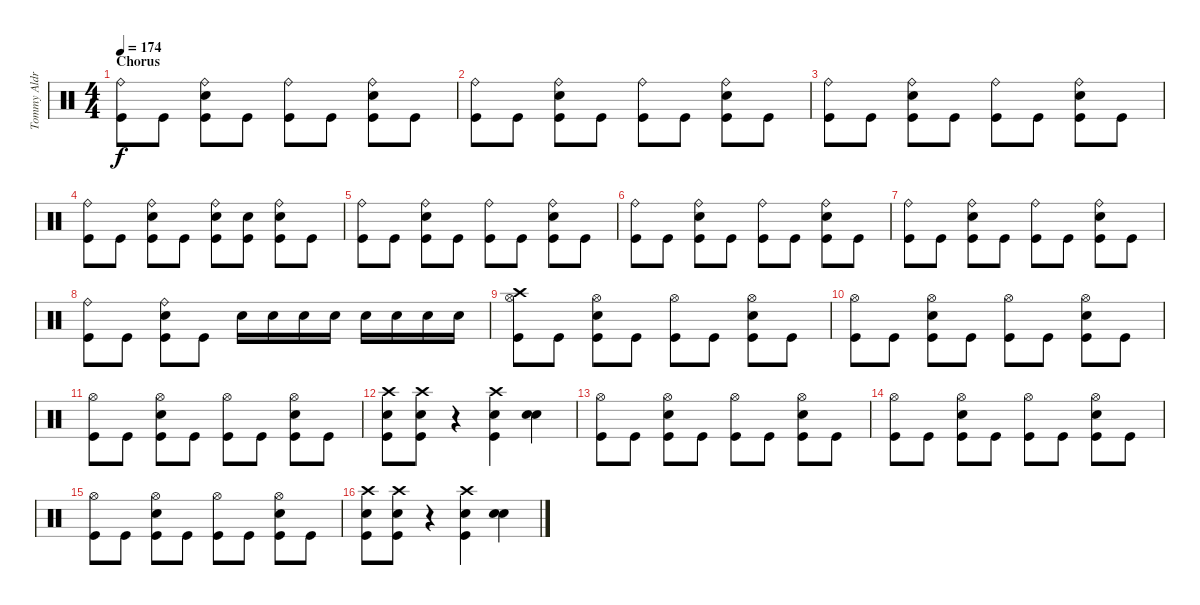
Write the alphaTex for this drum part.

\track ("Tommy Aldrige" "Tommy Aldr") {instrument percussion}
\staff {score}
\articulation defaults
\ts (4 4)
\section ("" "Chorus")
\tempo 174
\clef neutral
\ks c
("Ride (bell)" "Kick (hit)").8{dy f} "Kick (hit)".8 ("Ride (bell)" "Kick (hit)" "Snare (hit) 2").8 "Kick (hit)".8 ("Ride (bell)" "Kick (hit)").8 "Kick (hit)".8 ("Ride (bell)" "Kick (hit)" "Snare (hit) 2").8 "Kick (hit)".8 |
("Ride (bell)" "Kick (hit)").8 "Kick (hit)".8 ("Ride (bell)" "Kick (hit)" "Snare (hit) 2").8 "Kick (hit)".8 ("Ride (bell)" "Kick (hit)").8 "Kick (hit)".8 ("Ride (bell)" "Kick (hit)" "Snare (hit) 2").8 "Kick (hit)".8 |
("Ride (bell)" "Kick (hit)").8 "Kick (hit)".8 ("Ride (bell)" "Kick (hit)" "Snare (hit) 2").8 "Kick (hit)".8 ("Ride (bell)" "Kick (hit)").8 "Kick (hit)".8 ("Ride (bell)" "Kick (hit)" "Snare (hit) 2").8 "Kick (hit)".8 |
("Ride (bell)" "Kick (hit)").8 "Kick (hit)".8 ("Ride (bell)" "Kick (hit)" "Snare (hit) 2").8 "Kick (hit)".8 ("Ride (bell)" "Kick (hit)" "Snare (hit) 2").8 ("Kick (hit)" "Snare (hit) 2").8 ("Ride (bell)" "Kick (hit)" "Snare (hit) 2").8 "Kick (hit)".8 |
("Ride (bell)" "Kick (hit)").8 "Kick (hit)".8 ("Ride (bell)" "Kick (hit)" "Snare (hit) 2").8 "Kick (hit)".8 ("Ride (bell)" "Kick (hit)").8 "Kick (hit)".8 ("Ride (bell)" "Kick (hit)" "Snare (hit) 2").8 "Kick (hit)".8 |
("Ride (bell)" "Kick (hit)").8 "Kick (hit)".8 ("Ride (bell)" "Kick (hit)" "Snare (hit) 2").8 "Kick (hit)".8 ("Ride (bell)" "Kick (hit)").8 "Kick (hit)".8 ("Ride (bell)" "Kick (hit)" "Snare (hit) 2").8 "Kick (hit)".8 |
("Ride (bell)" "Kick (hit)").8 "Kick (hit)".8 ("Ride (bell)" "Kick (hit)" "Snare (hit) 2").8 "Kick (hit)".8 ("Ride (bell)" "Kick (hit)").8 "Kick (hit)".8 ("Ride (bell)" "Kick (hit)" "Snare (hit) 2").8 "Kick (hit)".8 |
("Ride (bell)" "Kick (hit)").8 "Kick (hit)".8 ("Ride (bell)" "Kick (hit)" "Snare (hit) 2").8 "Kick (hit)".8 "Snare (hit) 2".16 "Snare (hit) 2".16 "Snare (hit) 2".16 "Snare (hit) 2".16 "Snare (hit) 2".16 "Snare (hit) 2".16 "Snare (hit) 2".16 "Snare (hit) 2".16 |
("Hi-Hat (open)" "Kick (hit)" "Crash high (hit)").8 "Kick (hit)".8 ("Hi-Hat (open)" "Kick (hit)" "Snare (hit) 2").8 "Kick (hit)".8 ("Hi-Hat (open)" "Kick (hit)").8 "Kick (hit)".8 ("Hi-Hat (open)" "Kick (hit)" "Snare (hit) 2").8 "Kick (hit)".8 |
("Hi-Hat (open)" "Kick (hit)").8 "Kick (hit)".8 ("Hi-Hat (open)" "Kick (hit)" "Snare (hit) 2").8 "Kick (hit)".8 ("Hi-Hat (open)" "Kick (hit)").8 "Kick (hit)".8 ("Hi-Hat (open)" "Kick (hit)" "Snare (hit) 2").8 "Kick (hit)".8 |
("Hi-Hat (open)" "Kick (hit)").8 "Kick (hit)".8 ("Hi-Hat (open)" "Kick (hit)" "Snare (hit) 2").8 "Kick (hit)".8 ("Hi-Hat (open)" "Kick (hit)").8 "Kick (hit)".8 ("Hi-Hat (open)" "Kick (hit)" "Snare (hit) 2").8 "Kick (hit)".8 |
("Crash high (hit)" "Kick (hit)" "Snare (hit) 2").8 ("Crash high (hit)" "Kick (hit)" "Snare (hit) 2").8 r.4 ("Crash high (hit)" "Kick (hit)" "Snare (hit) 2").4 ("Snare (hit) 2" "Snare (hit) 2").4{bu 240} |
("Hi-Hat (open)" "Kick (hit)").8 "Kick (hit)".8 ("Hi-Hat (open)" "Kick (hit)" "Snare (hit) 2").8 "Kick (hit)".8 ("Hi-Hat (open)" "Kick (hit)").8 "Kick (hit)".8 ("Hi-Hat (open)" "Kick (hit)" "Snare (hit) 2").8 "Kick (hit)".8 |
("Hi-Hat (open)" "Kick (hit)").8 "Kick (hit)".8 ("Hi-Hat (open)" "Kick (hit)" "Snare (hit) 2").8 "Kick (hit)".8 ("Hi-Hat (open)" "Kick (hit)").8 "Kick (hit)".8 ("Hi-Hat (open)" "Kick (hit)" "Snare (hit) 2").8 "Kick (hit)".8 |
("Hi-Hat (open)" "Kick (hit)").8 "Kick (hit)".8 ("Hi-Hat (open)" "Kick (hit)" "Snare (hit) 2").8 "Kick (hit)".8 ("Hi-Hat (open)" "Kick (hit)").8 "Kick (hit)".8 ("Hi-Hat (open)" "Kick (hit)" "Snare (hit) 2").8 "Kick (hit)".8 |
("Crash high (hit)" "Kick (hit)" "Snare (hit) 2").8 ("Crash high (hit)" "Kick (hit)" "Snare (hit) 2").8 r.4 ("Crash high (hit)" "Kick (hit)" "Snare (hit) 2").4 ("Snare (hit) 2" "Snare (hit) 2").4{bu 240}
